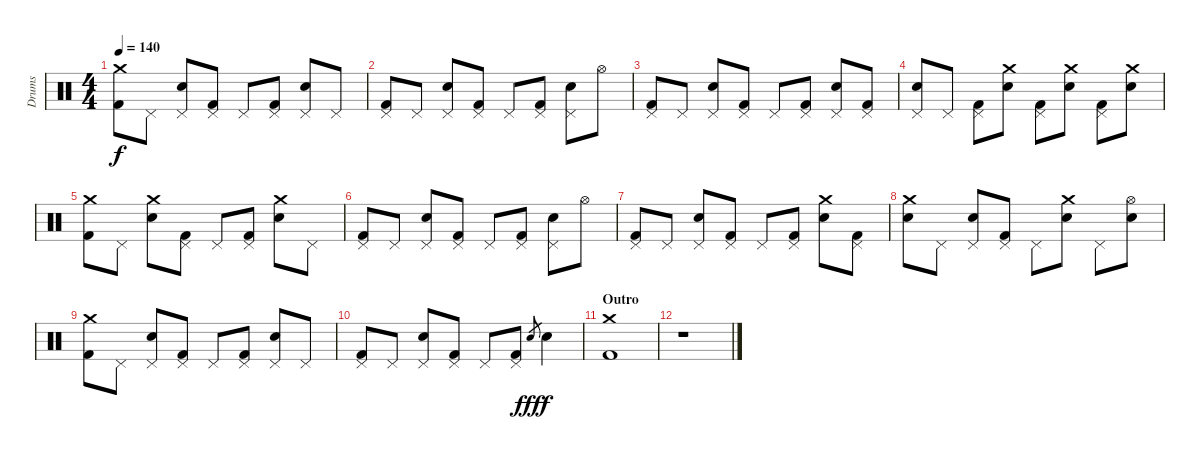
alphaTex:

\track ("Drums" "Drums") {instrument percussion}
\staff {score}
\articulation defaults
\ts (4 4)
\tempo 140
\clef neutral
\ks c
("Crash medium (hit)" "Kick (hit) 2").8{dy f} "Pedal Hi-Hat (hit)".8 ("Pedal Hi-Hat (hit)" "Electric Snare (hit)").8 ("Pedal Hi-Hat (hit)" "Kick (hit) 2").8 "Pedal Hi-Hat (hit)".8 ("Pedal Hi-Hat (hit)" "Kick (hit) 2").8 ("Pedal Hi-Hat (hit)" "Electric Snare (hit)").8 "Pedal Hi-Hat (hit)".8 |
("Pedal Hi-Hat (hit)" "Kick (hit) 2").8 "Pedal Hi-Hat (hit)".8 ("Pedal Hi-Hat (hit)" "Electric Snare (hit)").8 ("Pedal Hi-Hat (hit)" "Kick (hit) 2").8 "Pedal Hi-Hat (hit)".8 ("Pedal Hi-Hat (hit)" "Kick (hit) 2").8 ("Pedal Hi-Hat (hit)" "Electric Snare (hit)").8 "Hi-Hat (open)".8 |
("Pedal Hi-Hat (hit)" "Kick (hit) 2").8 "Pedal Hi-Hat (hit)".8 ("Pedal Hi-Hat (hit)" "Electric Snare (hit)").8 ("Pedal Hi-Hat (hit)" "Kick (hit) 2").8 "Pedal Hi-Hat (hit)".8 ("Pedal Hi-Hat (hit)" "Kick (hit) 2").8 ("Pedal Hi-Hat (hit)" "Electric Snare (hit)").8 ("Pedal Hi-Hat (hit)" "Kick (hit) 2").8 |
("Pedal Hi-Hat (hit)" "Electric Snare (hit)").8 "Pedal Hi-Hat (hit)".8 ("Pedal Hi-Hat (hit)" "Kick (hit) 2").8 ("Crash medium (hit)" "Electric Snare (hit)").8 ("Pedal Hi-Hat (hit)" "Kick (hit) 2").8 ("Crash medium (hit)" "Electric Snare (hit)").8 ("Pedal Hi-Hat (hit)" "Kick (hit) 2").8 ("Crash medium (hit)" "Electric Snare (hit)").8 |
("Crash medium (hit)" "Kick (hit) 2").8 "Pedal Hi-Hat (hit)".8 ("Crash medium (hit)" "Electric Snare (hit)").8 ("Pedal Hi-Hat (hit)" "Kick (hit) 2").8 "Pedal Hi-Hat (hit)".8 ("Pedal Hi-Hat (hit)" "Kick (hit) 2").8 ("Crash medium (hit)" "Electric Snare (hit)").8 "Pedal Hi-Hat (hit)".8 |
("Pedal Hi-Hat (hit)" "Kick (hit) 2").8 "Pedal Hi-Hat (hit)".8 ("Pedal Hi-Hat (hit)" "Electric Snare (hit)").8 ("Pedal Hi-Hat (hit)" "Kick (hit) 2").8 "Pedal Hi-Hat (hit)".8 ("Pedal Hi-Hat (hit)" "Kick (hit) 2").8 ("Pedal Hi-Hat (hit)" "Electric Snare (hit)").8 "Hi-Hat (open)".8 |
("Pedal Hi-Hat (hit)" "Kick (hit) 2").8 "Pedal Hi-Hat (hit)".8 ("Pedal Hi-Hat (hit)" "Electric Snare (hit)").8 ("Pedal Hi-Hat (hit)" "Kick (hit) 2").8 "Pedal Hi-Hat (hit)".8 ("Pedal Hi-Hat (hit)" "Kick (hit) 2").8 ("Crash medium (hit)" "Electric Snare (hit)").8 ("Pedal Hi-Hat (hit)" "Kick (hit) 2").8 |
("Crash medium (hit)" "Electric Snare (hit)").8 "Pedal Hi-Hat (hit)".8 ("Pedal Hi-Hat (hit)" "Electric Snare (hit)").8 ("Pedal Hi-Hat (hit)" "Kick (hit) 2").8 "Pedal Hi-Hat (hit)".8 ("Crash medium (hit)" "Electric Snare (hit)").8 "Pedal Hi-Hat (hit)".8 ("Hi-Hat (open)" "Electric Snare (hit)").8 |
("Crash medium (hit)" "Kick (hit) 2").8 "Pedal Hi-Hat (hit)".8 ("Pedal Hi-Hat (hit)" "Electric Snare (hit)").8 ("Pedal Hi-Hat (hit)" "Kick (hit) 2").8 "Pedal Hi-Hat (hit)".8 ("Pedal Hi-Hat (hit)" "Kick (hit) 2").8 ("Pedal Hi-Hat (hit)" "Electric Snare (hit)").8 "Pedal Hi-Hat (hit)".8 |
("Pedal Hi-Hat (hit)" "Kick (hit) 2").8 "Pedal Hi-Hat (hit)".8 ("Pedal Hi-Hat (hit)" "Electric Snare (hit)").8 ("Pedal Hi-Hat (hit)" "Kick (hit) 2").8 "Pedal Hi-Hat (hit)".8 ("Pedal Hi-Hat (hit)" "Kick (hit) 2").8 "Electric Snare (hit)".8{gr dy fff} "Electric Snare (hit)".4{dy f} |
\section ("" "Outro")
("Kick (hit) 2" "Crash medium (hit)").1 |
r.1
